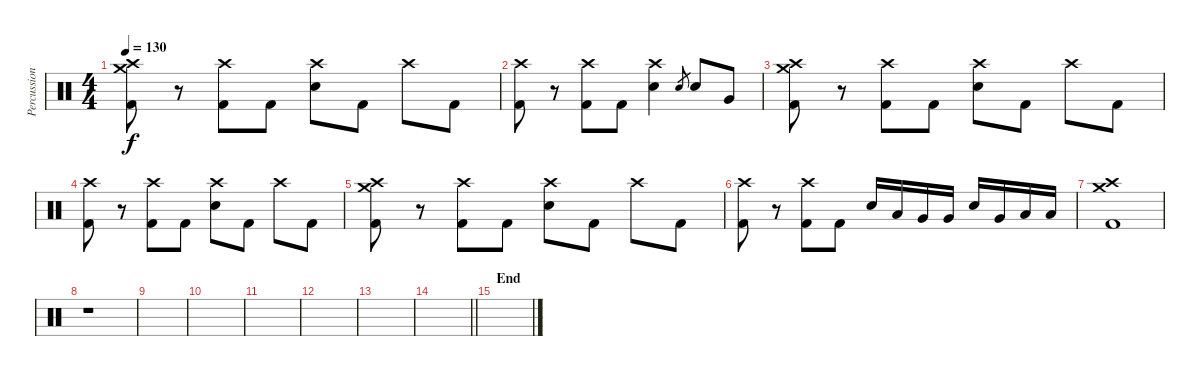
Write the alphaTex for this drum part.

\track ("Percussion" "Percussion") {instrument percussion}
\staff {score}
\articulation defaults
\ts (4 4)
\tempo 130
\clef neutral
\ks c
("Crash high (hit)" "Crash medium (hit)" "Kick (hit) 2").8{dy f} r.8 ("Crash high (hit)" "Kick (hit) 2").8 "Kick (hit) 2".8 ("Crash high (hit)" "Electric Snare (hit)").8 "Kick (hit) 2".8 "Crash high (hit)".8 "Kick (hit) 2".8 |
("Crash high (hit)" "Kick (hit) 2").8 r.8 ("Crash high (hit)" "Kick (hit) 2").8 "Kick (hit) 2".8 ("Crash high (hit)" "Electric Snare (hit)").4 "Electric Snare (hit)".8{gr} "Electric Snare (hit)".8 "Very Low Tom (hit)".8 |
("Crash high (hit)" "Crash medium (hit)" "Kick (hit) 2").8 r.8 ("Crash high (hit)" "Kick (hit) 2").8 "Kick (hit) 2".8 ("Crash high (hit)" "Electric Snare (hit)").8 "Kick (hit) 2".8 "Crash high (hit)".8 "Kick (hit) 2".8 |
("Crash high (hit)" "Kick (hit) 2").8 r.8 ("Crash high (hit)" "Kick (hit) 2").8 "Kick (hit) 2".8 ("Crash high (hit)" "Electric Snare (hit)").8 "Kick (hit) 2".8 "Crash high (hit)".8 "Kick (hit) 2".8 |
("Crash high (hit)" "Crash medium (hit)" "Kick (hit) 2").8 r.8 ("Crash high (hit)" "Kick (hit) 2").8 "Kick (hit) 2".8 ("Crash high (hit)" "Electric Snare (hit)").8 "Kick (hit) 2".8 "Crash high (hit)".8 "Kick (hit) 2".8 |
("Crash high (hit)" "Kick (hit) 2").8 r.8 ("Crash high (hit)" "Kick (hit) 2").8 "Kick (hit) 2".8 "Electric Snare (hit)".16 "Low Tom (hit)".16 "Very Low Tom (hit)".16 "Very Low Tom (hit)".16 "Electric Snare (hit)".16 "Very Low Tom (hit)".16 "Low Floor Tom (hit)".16 "Low Floor Tom (hit)".16 |
("Crash high (hit)" "Crash medium (hit)" "Kick (hit) 2").1 |
r.1 |
|
|
|
|
|
\barLineRight lightlight
|
\section ("" "End")
